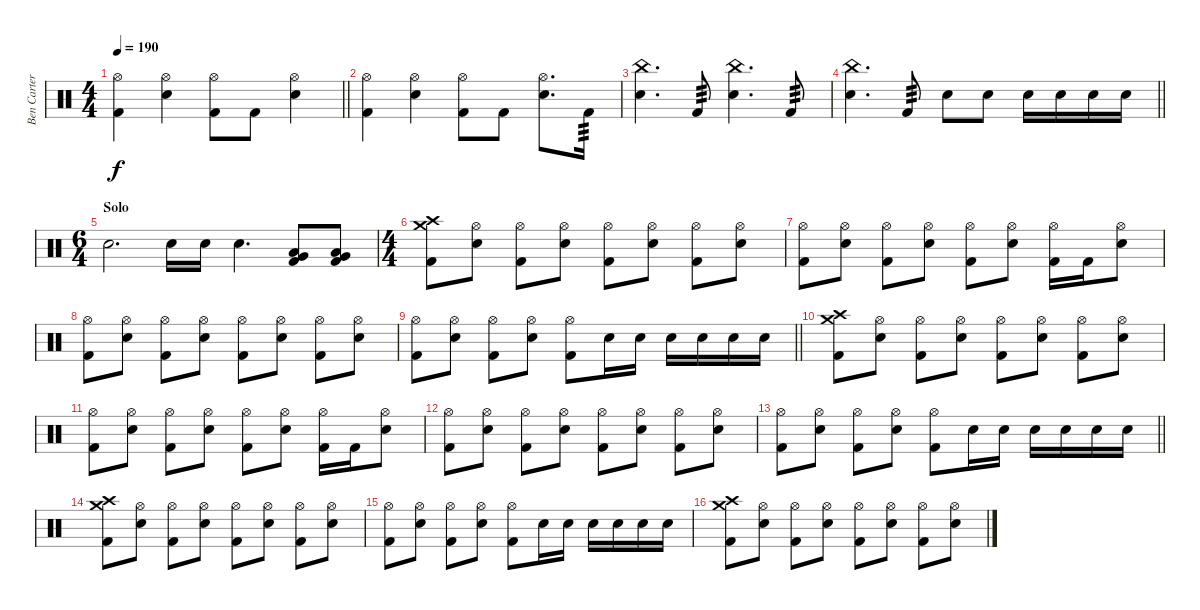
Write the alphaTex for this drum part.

\track ("Ben Carter" "Ben Carter") {instrument percussion}
\staff {score}
\articulation defaults
\ts (4 4)
\tempo 190
\clef neutral
\barLineRight lightlight
\ks c
("Hi-Hat (open)" "Kick (hit) 2").4{dy f} ("Hi-Hat (open)" "Snare (hit) 2").4 ("Hi-Hat (open)" "Kick (hit) 2").8 "Kick (hit) 2".8 ("Hi-Hat (open)" "Snare (hit) 2").4 |
("Hi-Hat (open)" "Kick (hit) 2").4 ("Hi-Hat (open)" "Snare (hit) 2").4 ("Hi-Hat (open)" "Kick (hit) 2").8 "Kick (hit) 2".8 ("Hi-Hat (open)" "Snare (hit) 2").8{d} "Kick (hit) 2".16{tp 3} |
("China (hit)" "Snare (hit) 2").4{d} "Kick (hit) 2".8{tp 3} ("China (hit)" "Snare (hit) 2").4{d} "Kick (hit) 2".8{tp 3} |
\barLineRight lightlight
("China (hit)" "Snare (hit) 2").4{d} "Kick (hit) 2".8{tp 3} "Snare (hit) 2".8 "Snare (hit) 2".8 "Snare (hit) 2".16 "Snare (hit) 2".16 "Snare (hit) 2".16 "Snare (hit) 2".16 |
\ts (6 4)
\section ("" "Solo")
"Snare (hit) 2".2{d} "Snare (hit) 2".16 "Snare (hit) 2".16 "Snare (hit) 2".4{d} ("Low Floor Tom (hit)" "Very Low Tom (hit)" "Kick (hit) 2").8 ("Low Floor Tom (hit)" "Very Low Tom (hit)" "Kick (hit) 2").8 |
\ts (4 4)
("Crash medium (hit)" "Crash high (hit)" "Kick (hit) 2").8 ("Hi-Hat (open)" "Snare (hit) 2").8 ("Hi-Hat (open)" "Kick (hit) 2").8 ("Hi-Hat (open)" "Snare (hit) 2").8 ("Hi-Hat (open)" "Kick (hit) 2").8 ("Hi-Hat (open)" "Snare (hit) 2").8 ("Hi-Hat (open)" "Kick (hit) 2").8 ("Hi-Hat (open)" "Snare (hit) 2").8 |
("Hi-Hat (open)" "Kick (hit) 2").8 ("Hi-Hat (open)" "Snare (hit) 2").8 ("Hi-Hat (open)" "Kick (hit) 2").8 ("Hi-Hat (open)" "Snare (hit) 2").8 ("Hi-Hat (open)" "Kick (hit) 2").8 ("Hi-Hat (open)" "Snare (hit) 2").8 ("Hi-Hat (open)" "Kick (hit) 2").16 "Kick (hit) 2".16 ("Hi-Hat (open)" "Snare (hit) 2").8 |
("Hi-Hat (open)" "Kick (hit) 2").8 ("Hi-Hat (open)" "Snare (hit) 2").8 ("Hi-Hat (open)" "Kick (hit) 2").8 ("Hi-Hat (open)" "Snare (hit) 2").8 ("Hi-Hat (open)" "Kick (hit) 2").8 ("Hi-Hat (open)" "Snare (hit) 2").8 ("Hi-Hat (open)" "Kick (hit) 2").8 ("Hi-Hat (open)" "Snare (hit) 2").8 |
\barLineRight lightlight
("Hi-Hat (open)" "Kick (hit) 2").8 ("Hi-Hat (open)" "Snare (hit) 2").8 ("Hi-Hat (open)" "Kick (hit) 2").8 ("Hi-Hat (open)" "Snare (hit) 2").8 ("Hi-Hat (open)" "Kick (hit) 2").8 "Snare (hit) 2".16 "Snare (hit) 2".16 "Snare (hit) 2".16 "Snare (hit) 2".16 "Snare (hit) 2".16 "Snare (hit) 2".16 |
("Crash medium (hit)" "Crash high (hit)" "Kick (hit) 2").8 ("Hi-Hat (open)" "Snare (hit) 2").8 ("Hi-Hat (open)" "Kick (hit) 2").8 ("Hi-Hat (open)" "Snare (hit) 2").8 ("Hi-Hat (open)" "Kick (hit) 2").8 ("Hi-Hat (open)" "Snare (hit) 2").8 ("Hi-Hat (open)" "Kick (hit) 2").8 ("Hi-Hat (open)" "Snare (hit) 2").8 |
("Hi-Hat (open)" "Kick (hit) 2").8 ("Hi-Hat (open)" "Snare (hit) 2").8 ("Hi-Hat (open)" "Kick (hit) 2").8 ("Hi-Hat (open)" "Snare (hit) 2").8 ("Hi-Hat (open)" "Kick (hit) 2").8 ("Hi-Hat (open)" "Snare (hit) 2").8 ("Hi-Hat (open)" "Kick (hit) 2").16 "Kick (hit) 2".16 ("Hi-Hat (open)" "Snare (hit) 2").8 |
("Hi-Hat (open)" "Kick (hit) 2").8 ("Hi-Hat (open)" "Snare (hit) 2").8 ("Hi-Hat (open)" "Kick (hit) 2").8 ("Hi-Hat (open)" "Snare (hit) 2").8 ("Hi-Hat (open)" "Kick (hit) 2").8 ("Hi-Hat (open)" "Snare (hit) 2").8 ("Hi-Hat (open)" "Kick (hit) 2").8 ("Hi-Hat (open)" "Snare (hit) 2").8 |
\barLineRight lightlight
("Hi-Hat (open)" "Kick (hit) 2").8 ("Hi-Hat (open)" "Snare (hit) 2").8 ("Hi-Hat (open)" "Kick (hit) 2").8 ("Hi-Hat (open)" "Snare (hit) 2").8 ("Hi-Hat (open)" "Kick (hit) 2").8 "Snare (hit) 2".16 "Snare (hit) 2".16 "Snare (hit) 2".16 "Snare (hit) 2".16 "Snare (hit) 2".16 "Snare (hit) 2".16 |
("Crash medium (hit)" "Crash high (hit)" "Kick (hit) 2").8 ("Hi-Hat (open)" "Snare (hit) 2").8 ("Hi-Hat (open)" "Kick (hit) 2").8 ("Hi-Hat (open)" "Snare (hit) 2").8 ("Hi-Hat (open)" "Kick (hit) 2").8 ("Hi-Hat (open)" "Snare (hit) 2").8 ("Hi-Hat (open)" "Kick (hit) 2").8 ("Hi-Hat (open)" "Snare (hit) 2").8 |
("Hi-Hat (open)" "Kick (hit) 2").8 ("Hi-Hat (open)" "Snare (hit) 2").8 ("Hi-Hat (open)" "Kick (hit) 2").8 ("Hi-Hat (open)" "Snare (hit) 2").8 ("Hi-Hat (open)" "Kick (hit) 2").8 "Snare (hit) 2".16 "Snare (hit) 2".16 "Snare (hit) 2".16 "Snare (hit) 2".16 "Snare (hit) 2".16 "Snare (hit) 2".16 |
("Crash medium (hit)" "Crash high (hit)" "Kick (hit) 2").8 ("Hi-Hat (open)" "Snare (hit) 2").8 ("Hi-Hat (open)" "Kick (hit) 2").8 ("Hi-Hat (open)" "Snare (hit) 2").8 ("Hi-Hat (open)" "Kick (hit) 2").8 ("Hi-Hat (open)" "Snare (hit) 2").8 ("Hi-Hat (open)" "Kick (hit) 2").8 ("Hi-Hat (open)" "Snare (hit) 2").8
